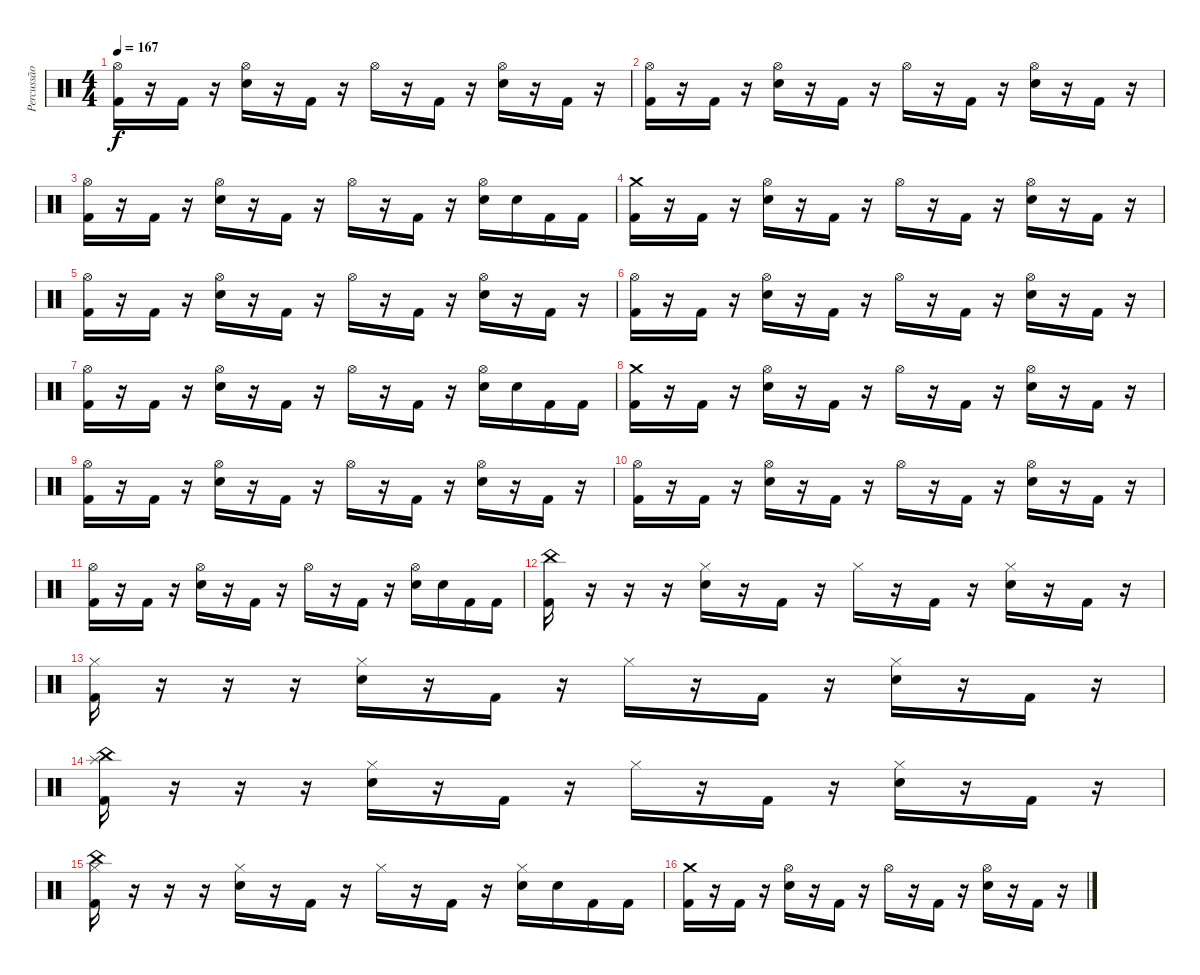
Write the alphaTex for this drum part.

\track ("Percussão" "Percussão") {instrument percussion}
\staff {score}
\articulation defaults
\ts (4 4)
\tempo 167
\clef neutral
\ks c
("Hi-Hat (open)" "Kick (hit) 2").16{dy f} r.16 "Kick (hit) 2".16 r.16 ("Hi-Hat (open)" "Electric Snare (hit)").16 r.16 "Kick (hit) 2".16 r.16 "Hi-Hat (open)".16 r.16 "Kick (hit) 2".16 r.16 ("Hi-Hat (open)" "Electric Snare (hit)").16 r.16 "Kick (hit) 2".16 r.16 |
("Hi-Hat (open)" "Kick (hit) 2").16 r.16 "Kick (hit) 2".16 r.16 ("Hi-Hat (open)" "Electric Snare (hit)").16 r.16 "Kick (hit) 2".16 r.16 "Hi-Hat (open)".16 r.16 "Kick (hit) 2".16 r.16 ("Hi-Hat (open)" "Electric Snare (hit)").16 r.16 "Kick (hit) 2".16 r.16 |
("Hi-Hat (open)" "Kick (hit) 2").16 r.16 "Kick (hit) 2".16 r.16 ("Hi-Hat (open)" "Electric Snare (hit)").16 r.16 "Kick (hit) 2".16 r.16 "Hi-Hat (open)".16 r.16 "Kick (hit) 2".16 r.16 ("Hi-Hat (open)" "Electric Snare (hit)").16 "Electric Snare (hit)".16 "Kick (hit) 2".16 "Kick (hit) 2".16 |
("Crash medium (hit)" "Kick (hit) 2").16 r.16 "Kick (hit) 2".16 r.16 ("Hi-Hat (open)" "Electric Snare (hit)").16 r.16 "Kick (hit) 2".16 r.16 "Hi-Hat (open)".16 r.16 "Kick (hit) 2".16 r.16 ("Hi-Hat (open)" "Electric Snare (hit)").16 r.16 "Kick (hit) 2".16 r.16 |
("Hi-Hat (open)" "Kick (hit) 2").16 r.16 "Kick (hit) 2".16 r.16 ("Hi-Hat (open)" "Electric Snare (hit)").16 r.16 "Kick (hit) 2".16 r.16 "Hi-Hat (open)".16 r.16 "Kick (hit) 2".16 r.16 ("Hi-Hat (open)" "Electric Snare (hit)").16 r.16 "Kick (hit) 2".16 r.16 |
("Hi-Hat (open)" "Kick (hit) 2").16 r.16 "Kick (hit) 2".16 r.16 ("Hi-Hat (open)" "Electric Snare (hit)").16 r.16 "Kick (hit) 2".16 r.16 "Hi-Hat (open)".16 r.16 "Kick (hit) 2".16 r.16 ("Hi-Hat (open)" "Electric Snare (hit)").16 r.16 "Kick (hit) 2".16 r.16 |
("Hi-Hat (open)" "Kick (hit) 2").16 r.16 "Kick (hit) 2".16 r.16 ("Hi-Hat (open)" "Electric Snare (hit)").16 r.16 "Kick (hit) 2".16 r.16 "Hi-Hat (open)".16 r.16 "Kick (hit) 2".16 r.16 ("Hi-Hat (open)" "Electric Snare (hit)").16 "Electric Snare (hit)".16 "Kick (hit) 2".16 "Kick (hit) 2".16 |
("Crash medium (hit)" "Kick (hit) 2").16 r.16 "Kick (hit) 2".16 r.16 ("Hi-Hat (open)" "Electric Snare (hit)").16 r.16 "Kick (hit) 2".16 r.16 "Hi-Hat (open)".16 r.16 "Kick (hit) 2".16 r.16 ("Hi-Hat (open)" "Electric Snare (hit)").16 r.16 "Kick (hit) 2".16 r.16 |
("Hi-Hat (open)" "Kick (hit) 2").16 r.16 "Kick (hit) 2".16 r.16 ("Hi-Hat (open)" "Electric Snare (hit)").16 r.16 "Kick (hit) 2".16 r.16 "Hi-Hat (open)".16 r.16 "Kick (hit) 2".16 r.16 ("Hi-Hat (open)" "Electric Snare (hit)").16 r.16 "Kick (hit) 2".16 r.16 |
("Hi-Hat (open)" "Kick (hit) 2").16 r.16 "Kick (hit) 2".16 r.16 ("Hi-Hat (open)" "Electric Snare (hit)").16 r.16 "Kick (hit) 2".16 r.16 "Hi-Hat (open)".16 r.16 "Kick (hit) 2".16 r.16 ("Hi-Hat (open)" "Electric Snare (hit)").16 r.16 "Kick (hit) 2".16 r.16 |
("Hi-Hat (open)" "Kick (hit) 2").16 r.16 "Kick (hit) 2".16 r.16 ("Hi-Hat (open)" "Electric Snare (hit)").16 r.16 "Kick (hit) 2".16 r.16 "Hi-Hat (open)".16 r.16 "Kick (hit) 2".16 r.16 ("Hi-Hat (open)" "Electric Snare (hit)").16 "Electric Snare (hit)".16 "Kick (hit) 2".16 "Kick (hit) 2".16 |
("China (hit)" "Kick (hit) 2").16 r.16 r.16 r.16 ("Hi-Hat (closed)" "Electric Snare (hit)").16 r.16 "Kick (hit) 2".16 r.16 "Hi-Hat (closed)".16 r.16 "Kick (hit) 2".16 r.16 ("Hi-Hat (closed)" "Electric Snare (hit)").16 r.16 "Kick (hit) 2".16 r.16 |
("Hi-Hat (closed)" "Kick (hit) 2").16 r.16 r.16 r.16 ("Hi-Hat (closed)" "Electric Snare (hit)").16 r.16 "Kick (hit) 2".16 r.16 "Hi-Hat (closed)".16 r.16 "Kick (hit) 2".16 r.16 ("Hi-Hat (closed)" "Electric Snare (hit)").16 r.16 "Kick (hit) 2".16 r.16 |
("Splash (hit)" "China (hit)" "Kick (hit) 2").16 r.16 r.16 r.16 ("Hi-Hat (closed)" "Electric Snare (hit)").16 r.16 "Kick (hit) 2".16 r.16 "Hi-Hat (closed)".16 r.16 "Kick (hit) 2".16 r.16 ("Hi-Hat (closed)" "Electric Snare (hit)").16 r.16 "Kick (hit) 2".16 r.16 |
("China (hit)" "Hi-Hat (closed)" "Kick (hit) 2").16 r.16 r.16 r.16 ("Hi-Hat (closed)" "Electric Snare (hit)").16 r.16 "Kick (hit) 2".16 r.16 "Hi-Hat (closed)".16 r.16 "Kick (hit) 2".16 r.16 ("Hi-Hat (closed)" "Electric Snare (hit)").16 "Electric Snare (hit)".16 "Kick (hit) 2".16 "Kick (hit) 2".16 |
("Crash medium (hit)" "Kick (hit) 2").16 r.16 "Kick (hit) 2".16 r.16 ("Hi-Hat (open)" "Electric Snare (hit)").16 r.16 "Kick (hit) 2".16 r.16 "Hi-Hat (open)".16 r.16 "Kick (hit) 2".16 r.16 ("Hi-Hat (open)" "Electric Snare (hit)").16 r.16 "Kick (hit) 2".16 r.16
